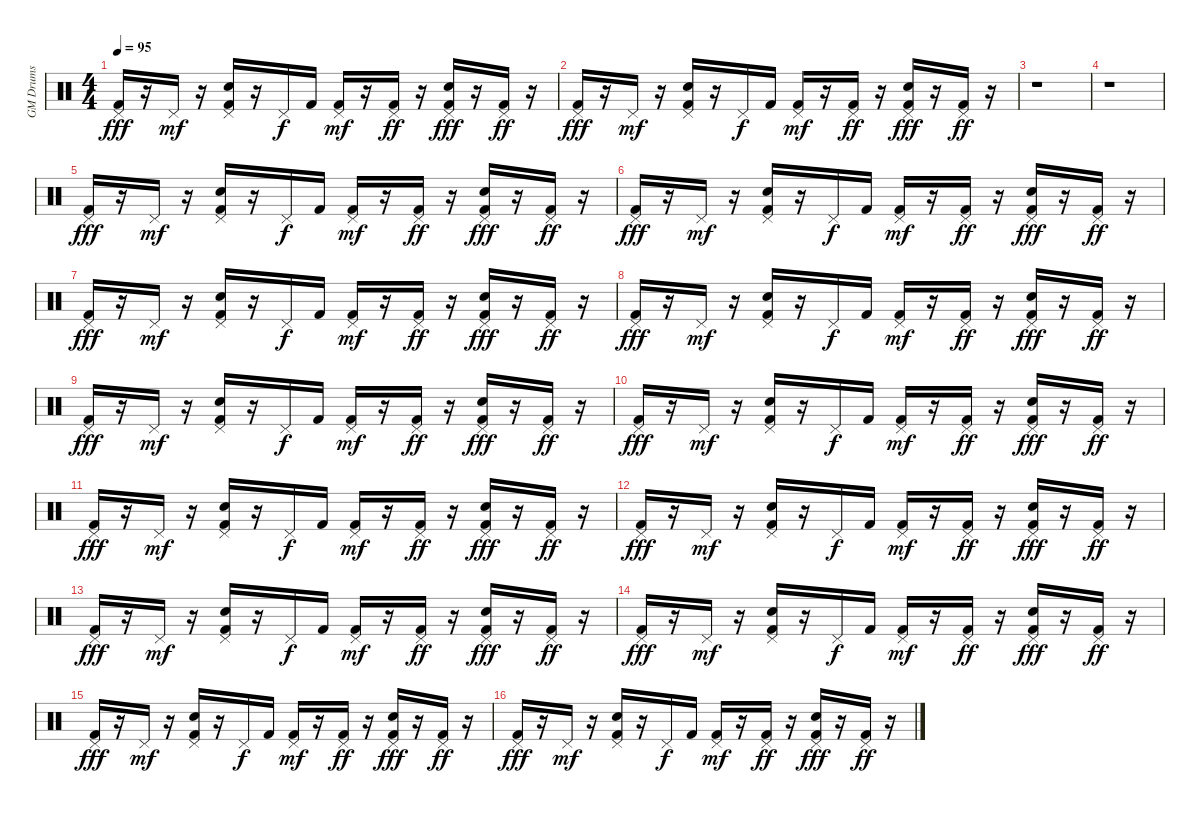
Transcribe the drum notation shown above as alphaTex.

\track ("GM Drums" "GM Drums") {instrument percussion}
\staff {score}
\articulation defaults
\ts (4 4)
\tempo 95
\clef neutral
\ks c
("Kick (hit) 2" "Pedal Hi-Hat (hit)").16{dy fff} r.16 "Pedal Hi-Hat (hit)".16{dy mf} r.16 ("Kick (hit) 2" "Hand Clap (hit)" "Pedal Hi-Hat (hit)").16 r.16 "Pedal Hi-Hat (hit)".16{dy f} "Kick (hit) 2".16 ("Kick (hit) 2" "Pedal Hi-Hat (hit)").16{dy mf} r.16 ("Kick (hit) 2" "Pedal Hi-Hat (hit)").16{dy ff} r.16 ("Kick (hit) 2" "Hand Clap (hit)" "Pedal Hi-Hat (hit)").16{dy fff} r.16 ("Kick (hit) 2" "Pedal Hi-Hat (hit)").16{dy ff} r.16 |
("Kick (hit) 2" "Pedal Hi-Hat (hit)").16{dy fff} r.16 "Pedal Hi-Hat (hit)".16{dy mf} r.16 ("Kick (hit) 2" "Hand Clap (hit)" "Pedal Hi-Hat (hit)").16 r.16 "Pedal Hi-Hat (hit)".16{dy f} "Kick (hit) 2".16 ("Kick (hit) 2" "Pedal Hi-Hat (hit)").16{dy mf} r.16 ("Kick (hit) 2" "Pedal Hi-Hat (hit)").16{dy ff} r.16 ("Kick (hit) 2" "Hand Clap (hit)" "Pedal Hi-Hat (hit)").16{dy fff} r.16 ("Kick (hit) 2" "Pedal Hi-Hat (hit)").16{dy ff} r.16 |
r.1 |
r.1 |
("Kick (hit) 2" "Pedal Hi-Hat (hit)").16{dy fff} r.16 "Pedal Hi-Hat (hit)".16{dy mf} r.16 ("Kick (hit) 2" "Hand Clap (hit)" "Pedal Hi-Hat (hit)").16 r.16 "Pedal Hi-Hat (hit)".16{dy f} "Kick (hit) 2".16 ("Kick (hit) 2" "Pedal Hi-Hat (hit)").16{dy mf} r.16 ("Kick (hit) 2" "Pedal Hi-Hat (hit)").16{dy ff} r.16 ("Kick (hit) 2" "Hand Clap (hit)" "Pedal Hi-Hat (hit)").16{dy fff} r.16 ("Kick (hit) 2" "Pedal Hi-Hat (hit)").16{dy ff} r.16 |
("Kick (hit) 2" "Pedal Hi-Hat (hit)").16{dy fff} r.16 "Pedal Hi-Hat (hit)".16{dy mf} r.16 ("Kick (hit) 2" "Hand Clap (hit)" "Pedal Hi-Hat (hit)").16 r.16 "Pedal Hi-Hat (hit)".16{dy f} "Kick (hit) 2".16 ("Kick (hit) 2" "Pedal Hi-Hat (hit)").16{dy mf} r.16 ("Kick (hit) 2" "Pedal Hi-Hat (hit)").16{dy ff} r.16 ("Kick (hit) 2" "Hand Clap (hit)" "Pedal Hi-Hat (hit)").16{dy fff} r.16 ("Kick (hit) 2" "Pedal Hi-Hat (hit)").16{dy ff} r.16 |
("Kick (hit) 2" "Pedal Hi-Hat (hit)").16{dy fff} r.16 "Pedal Hi-Hat (hit)".16{dy mf} r.16 ("Kick (hit) 2" "Hand Clap (hit)" "Pedal Hi-Hat (hit)").16 r.16 "Pedal Hi-Hat (hit)".16{dy f} "Kick (hit) 2".16 ("Kick (hit) 2" "Pedal Hi-Hat (hit)").16{dy mf} r.16 ("Kick (hit) 2" "Pedal Hi-Hat (hit)").16{dy ff} r.16 ("Kick (hit) 2" "Hand Clap (hit)" "Pedal Hi-Hat (hit)").16{dy fff} r.16 ("Kick (hit) 2" "Pedal Hi-Hat (hit)").16{dy ff} r.16 |
("Kick (hit) 2" "Pedal Hi-Hat (hit)").16{dy fff} r.16 "Pedal Hi-Hat (hit)".16{dy mf} r.16 ("Kick (hit) 2" "Hand Clap (hit)" "Pedal Hi-Hat (hit)").16 r.16 "Pedal Hi-Hat (hit)".16{dy f} "Kick (hit) 2".16 ("Kick (hit) 2" "Pedal Hi-Hat (hit)").16{dy mf} r.16 ("Kick (hit) 2" "Pedal Hi-Hat (hit)").16{dy ff} r.16 ("Kick (hit) 2" "Hand Clap (hit)" "Pedal Hi-Hat (hit)").16{dy fff} r.16 ("Kick (hit) 2" "Pedal Hi-Hat (hit)").16{dy ff} r.16 |
("Kick (hit) 2" "Pedal Hi-Hat (hit)").16{dy fff} r.16 "Pedal Hi-Hat (hit)".16{dy mf} r.16 ("Kick (hit) 2" "Hand Clap (hit)" "Pedal Hi-Hat (hit)").16 r.16 "Pedal Hi-Hat (hit)".16{dy f} "Kick (hit) 2".16 ("Kick (hit) 2" "Pedal Hi-Hat (hit)").16{dy mf} r.16 ("Kick (hit) 2" "Pedal Hi-Hat (hit)").16{dy ff} r.16 ("Kick (hit) 2" "Hand Clap (hit)" "Pedal Hi-Hat (hit)").16{dy fff} r.16 ("Kick (hit) 2" "Pedal Hi-Hat (hit)").16{dy ff} r.16 |
("Kick (hit) 2" "Pedal Hi-Hat (hit)").16{dy fff} r.16 "Pedal Hi-Hat (hit)".16{dy mf} r.16 ("Kick (hit) 2" "Hand Clap (hit)" "Pedal Hi-Hat (hit)").16 r.16 "Pedal Hi-Hat (hit)".16{dy f} "Kick (hit) 2".16 ("Kick (hit) 2" "Pedal Hi-Hat (hit)").16{dy mf} r.16 ("Kick (hit) 2" "Pedal Hi-Hat (hit)").16{dy ff} r.16 ("Kick (hit) 2" "Hand Clap (hit)" "Pedal Hi-Hat (hit)").16{dy fff} r.16 ("Kick (hit) 2" "Pedal Hi-Hat (hit)").16{dy ff} r.16 |
("Kick (hit) 2" "Pedal Hi-Hat (hit)").16{dy fff} r.16 "Pedal Hi-Hat (hit)".16{dy mf} r.16 ("Kick (hit) 2" "Hand Clap (hit)" "Pedal Hi-Hat (hit)").16 r.16 "Pedal Hi-Hat (hit)".16{dy f} "Kick (hit) 2".16 ("Kick (hit) 2" "Pedal Hi-Hat (hit)").16{dy mf} r.16 ("Kick (hit) 2" "Pedal Hi-Hat (hit)").16{dy ff} r.16 ("Kick (hit) 2" "Hand Clap (hit)" "Pedal Hi-Hat (hit)").16{dy fff} r.16 ("Kick (hit) 2" "Pedal Hi-Hat (hit)").16{dy ff} r.16 |
("Kick (hit) 2" "Pedal Hi-Hat (hit)").16{dy fff} r.16 "Pedal Hi-Hat (hit)".16{dy mf} r.16 ("Kick (hit) 2" "Hand Clap (hit)" "Pedal Hi-Hat (hit)").16 r.16 "Pedal Hi-Hat (hit)".16{dy f} "Kick (hit) 2".16 ("Kick (hit) 2" "Pedal Hi-Hat (hit)").16{dy mf} r.16 ("Kick (hit) 2" "Pedal Hi-Hat (hit)").16{dy ff} r.16 ("Kick (hit) 2" "Hand Clap (hit)" "Pedal Hi-Hat (hit)").16{dy fff} r.16 ("Kick (hit) 2" "Pedal Hi-Hat (hit)").16{dy ff} r.16 |
("Kick (hit) 2" "Pedal Hi-Hat (hit)").16{dy fff} r.16 "Pedal Hi-Hat (hit)".16{dy mf} r.16 ("Kick (hit) 2" "Hand Clap (hit)" "Pedal Hi-Hat (hit)").16 r.16 "Pedal Hi-Hat (hit)".16{dy f} "Kick (hit) 2".16 ("Kick (hit) 2" "Pedal Hi-Hat (hit)").16{dy mf} r.16 ("Kick (hit) 2" "Pedal Hi-Hat (hit)").16{dy ff} r.16 ("Kick (hit) 2" "Hand Clap (hit)" "Pedal Hi-Hat (hit)").16{dy fff} r.16 ("Kick (hit) 2" "Pedal Hi-Hat (hit)").16{dy ff} r.16 |
("Kick (hit) 2" "Pedal Hi-Hat (hit)").16{dy fff} r.16 "Pedal Hi-Hat (hit)".16{dy mf} r.16 ("Kick (hit) 2" "Hand Clap (hit)" "Pedal Hi-Hat (hit)").16 r.16 "Pedal Hi-Hat (hit)".16{dy f} "Kick (hit) 2".16 ("Kick (hit) 2" "Pedal Hi-Hat (hit)").16{dy mf} r.16 ("Kick (hit) 2" "Pedal Hi-Hat (hit)").16{dy ff} r.16 ("Kick (hit) 2" "Hand Clap (hit)" "Pedal Hi-Hat (hit)").16{dy fff} r.16 ("Kick (hit) 2" "Pedal Hi-Hat (hit)").16{dy ff} r.16 |
("Kick (hit) 2" "Pedal Hi-Hat (hit)").16{dy fff} r.16 "Pedal Hi-Hat (hit)".16{dy mf} r.16 ("Kick (hit) 2" "Hand Clap (hit)" "Pedal Hi-Hat (hit)").16 r.16 "Pedal Hi-Hat (hit)".16{dy f} "Kick (hit) 2".16 ("Kick (hit) 2" "Pedal Hi-Hat (hit)").16{dy mf} r.16 ("Kick (hit) 2" "Pedal Hi-Hat (hit)").16{dy ff} r.16 ("Kick (hit) 2" "Hand Clap (hit)" "Pedal Hi-Hat (hit)").16{dy fff} r.16 ("Kick (hit) 2" "Pedal Hi-Hat (hit)").16{dy ff} r.16 |
("Kick (hit) 2" "Pedal Hi-Hat (hit)").16{dy fff} r.16 "Pedal Hi-Hat (hit)".16{dy mf} r.16 ("Kick (hit) 2" "Hand Clap (hit)" "Pedal Hi-Hat (hit)").16 r.16 "Pedal Hi-Hat (hit)".16{dy f} "Kick (hit) 2".16 ("Kick (hit) 2" "Pedal Hi-Hat (hit)").16{dy mf} r.16 ("Kick (hit) 2" "Pedal Hi-Hat (hit)").16{dy ff} r.16 ("Kick (hit) 2" "Hand Clap (hit)" "Pedal Hi-Hat (hit)").16{dy fff} r.16 ("Kick (hit) 2" "Pedal Hi-Hat (hit)").16{dy ff} r.16
